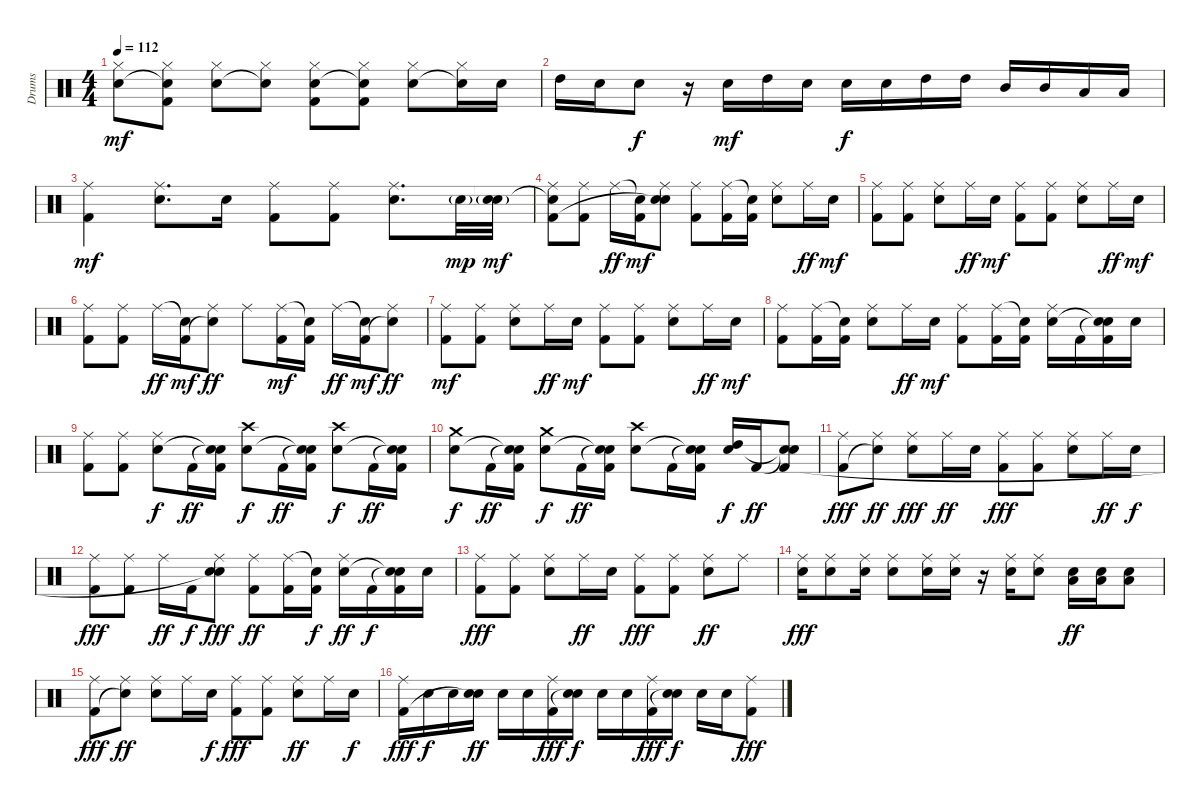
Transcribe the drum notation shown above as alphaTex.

\track ("Drums" "Drums") {instrument percussion}
\staff {score}
\articulation defaults
\ts (4 4)
\tempo 112
\clef neutral
\ks c
("Hi-Hat (closed)" "Electric Snare (hit)").8{dy mf} ("Hi-Hat (closed)" "Snare (hit)"{t} "Kick (hit) 2").8 ("Hi-Hat (closed)" "Electric Snare (hit)").8 ("Hi-Hat (closed)" "Snare (hit)"{t}).8 ("Hi-Hat (closed)" "Electric Snare (hit)" "Kick (hit) 2").8 ("Hi-Hat (closed)" "Snare (hit)"{t} "Kick (hit) 2").8 ("Hi-Hat (closed)" "Electric Snare (hit)").8 ("Hi-Hat (closed)" "Snare (hit)"{t}).16 "Electric Snare (hit)".16 |
"High Tom (hit)".16 "Electric Snare (hit)".16 "Electric Snare (hit)".8{dy f} r.16 "Electric Snare (hit)".16{dy mf} "High Tom (hit)".16 "Electric Snare (hit)".16 "Electric Snare (hit)".16{dy f} "Electric Snare (hit)".16 "High Tom (hit)".16 "High Tom (hit)".16 "Mid Tom (hit)".16 "Mid Tom (hit)".16 "Low Tom (hit)".16 "Low Tom (hit)".16 |
("Ride (middle)" "Kick (hit) 2").4{dy mf} ("Ride (middle)" "Electric Snare (hit)").8{d} "Electric Snare (hit)".16 ("Ride (middle)" "Kick (hit) 2").8 ("Ride (middle)" "Kick (hit) 2").8 ("Ride (middle)" "Electric Snare (hit)").8{d} "Electric Snare (hit)"{g}.32{dy mp} ("Snare (hit)"{t} "Electric Snare (hit)"{g}).32{dy mf} |
("Ride (middle)" "Snare (hit)"{t} "Kick (hit) 2").8 ("Ride (middle)" "Kick (hit) 2").8 "Ride (middle)".16{dy ff} ("Snare (hit)"{t} "Kick (hit) 2").16{dy mf} ("Ride (middle)" "Electric Snare (hit)" "Snare (hit)"{t}).8 ("Ride (middle)" "Kick (hit) 2").8 ("Ride (middle)" "Kick (hit) 2").16 ("Snare (hit)"{t} "Kick (hit) 2").16 ("Ride (middle)" "Electric Snare (hit)").8 "Ride (middle)".16{dy ff} "Electric Snare (hit)".16{dy mf} |
("Ride (middle)" "Kick (hit) 2").8 ("Ride (middle)" "Kick (hit) 2").8 ("Ride (middle)" "Electric Snare (hit)").8 "Ride (middle)".16{dy ff} "Electric Snare (hit)".16{dy mf} ("Ride (middle)" "Kick (hit) 2").8 ("Ride (middle)" "Kick (hit) 2").8 ("Ride (middle)" "Electric Snare (hit)").8 "Ride (middle)".16{dy ff} "Electric Snare (hit)".16{dy mf} |
("Ride (middle)" "Kick (hit) 2").8 ("Ride (middle)" "Kick (hit) 2").8 "Ride (middle)".16{dy ff} ("Snare (hit)"{t} "Kick (hit) 2").16{dy mf} ("Ride (middle)" "Snare (hit)"{t}).8{dy ff} "Ride (middle)".8 ("Ride (middle)" "Kick (hit) 2").16{dy mf} ("Snare (hit)"{t} "Kick (hit) 2").16 "Ride (middle)".16{dy ff} ("Snare (hit)"{t} "Kick (hit) 2").16{dy mf} ("Ride (middle)" "Snare (hit)"{t}).8{dy ff} |
("Ride (middle)" "Kick (hit) 2").8{dy mf} ("Ride (middle)" "Kick (hit) 2").8 ("Ride (middle)" "Electric Snare (hit)").8 "Ride (middle)".16{dy ff} "Electric Snare (hit)".16{dy mf} ("Ride (middle)" "Kick (hit) 2").8 ("Ride (middle)" "Kick (hit) 2").8 ("Ride (middle)" "Electric Snare (hit)").8 "Ride (middle)".16{dy ff} "Electric Snare (hit)".16{dy mf} |
("Ride (middle)" "Kick (hit) 2").8 ("Ride (middle)" "Kick (hit) 2").16 ("Snare (hit)"{t} "Kick (hit) 2").16 ("Ride (middle)" "Electric Snare (hit)").8 "Ride (middle)".16{dy ff} "Electric Snare (hit)".16{dy mf} ("Ride (middle)" "Kick (hit) 2").8 ("Ride (middle)" "Kick (hit) 2").16 ("Snare (hit)"{t} "Kick (hit) 2").16 ("Ride (middle)" "Electric Snare (hit)").16 "Kick (hit) 2".16 ("Snare (hit)"{t} "Snare (hit)"{t} "Kick (hit) 2").16 "Electric Snare (hit)".16 |
("Ride (middle)" "Kick (hit) 2").8 ("Ride (middle)" "Kick (hit) 2").8 ("Ride (middle)" "Electric Snare (hit)").8{dy f} "Kick (hit) 2".16{dy ff} ("Snare (hit)"{t} "Snare (hit)"{t} "Kick (hit) 2").16 ("Crash high (hit)" "Electric Snare (hit)").8{dy f} "Kick (hit) 2".16{dy ff} ("Snare (hit)"{t} "Snare (hit)"{t} "Kick (hit) 2").16 ("Crash high (hit)" "Electric Snare (hit)").8{dy f} "Kick (hit) 2".16{dy ff} ("Snare (hit)"{t} "Snare (hit)"{t} "Kick (hit) 2").16 |
("Crash medium (hit)" "Electric Snare (hit)").8{dy f} "Kick (hit) 2".16{dy ff} ("Snare (hit)"{t} "Snare (hit)"{t} "Kick (hit) 2").16 ("Crash medium (hit)" "Electric Snare (hit)").8{dy f} "Kick (hit) 2".16{dy ff} ("Snare (hit)"{t} "Snare (hit)"{t} "Kick (hit) 2").16 ("Crash high (hit)" "Electric Snare (hit)").8 "Kick (hit) 2".16 ("Snare (hit)"{t} "Snare (hit)"{t} "Kick (hit) 2").16 ("High Tom (hit)" "Electric Snare (hit)").16{dy f} "Kick (hit) 2".16{dy ff} ("Snare (hit)"{t} "Snare (hit)"{t} "Kick (hit) 2").8 |
("Ride (middle)" "Kick (hit) 2").8{dy fff} ("Ride (middle)" "Snare (hit)"{t}).8{dy ff} ("Ride (middle)" "Electric Snare (hit)").8{dy fff} "Ride (middle)".16{dy ff} "Electric Snare (hit)".16 ("Ride (middle)" "Kick (hit) 2").8{dy fff} ("Ride (middle)" "Kick (hit) 2").8 ("Ride (middle)" "Electric Snare (hit)").8 "Ride (middle)".16{dy ff} "Electric Snare (hit)".16{dy f} |
("Ride (middle)" "Kick (hit) 2").8{dy fff} ("Ride (middle)" "Kick (hit) 2").8 "Ride (middle)".16{dy ff} "Kick (hit) 2".16{dy f} ("Ride (middle)" "Electric Snare (hit)" "Snare (hit)"{t}).8{dy fff} ("Ride (middle)" "Kick (hit) 2").8{dy ff} ("Ride (middle)" "Kick (hit) 2").16 ("Snare (hit)"{t} "Kick (hit) 2").16{dy f} ("Ride (middle)" "Electric Snare (hit)").16{dy ff} "Kick (hit) 2".16{dy f} ("Snare (hit)"{t} "Snare (hit)"{t} "Kick (hit) 2").16 "Electric Snare (hit)".16 |
("Ride (middle)" "Kick (hit) 2").8{dy fff} ("Ride (middle)" "Kick (hit) 2").8 ("Ride (middle)" "Electric Snare (hit)").8 "Ride (middle)".16{dy ff} "Electric Snare (hit)".16 ("Ride (middle)" "Kick (hit) 2").8{dy fff} ("Ride (middle)" "Kick (hit) 2").8 ("Ride (middle)" "Electric Snare (hit)").8{dy ff} "Ride (middle)".8 |
("Ride (middle)" "Electric Snare (hit)").16{dy fff} ("Ride (middle)" "Electric Snare (hit)").8 ("Ride (middle)" "Electric Snare (hit)").16 ("Ride (middle)" "Electric Snare (hit)").8 ("Ride (middle)" "Electric Snare (hit)").16 ("Ride (middle)" "Electric Snare (hit)").16 r.16 ("Ride (middle)" "Electric Snare (hit)").16 ("Ride (middle)" "Electric Snare (hit)").8 ("Electric Snare (hit)" "Low Tom (hit)").16{dy ff} ("Electric Snare (hit)" "Low Tom (hit)").16 ("Electric Snare (hit)" "Low Tom (hit)").8 |
("Ride (middle)" "Kick (hit) 2").8{dy fff} ("Ride (middle)" "Snare (hit)"{t}).8{dy ff} ("Ride (middle)" "Electric Snare (hit)").8 "Ride (middle)".16 "Electric Snare (hit)".16{dy f} ("Ride (middle)" "Kick (hit) 2").8{dy fff} ("Ride (middle)" "Kick (hit) 2").8 ("Ride (middle)" "Electric Snare (hit)").8{dy ff} "Ride (middle)".16 "Electric Snare (hit)".16{dy f} |
("Ride (middle)" "Kick (hit) 2").16{dy fff} "Electric Snare (hit)".16{dy f} "Electric Snare (hit)".16 ("Electric Snare (hit)" "Snare (hit)"{t}).16{dy ff} "Electric Snare (hit)".16 "Electric Snare (hit)".16 ("Ride (middle)" "Kick (hit) 2").16{dy fff} ("Electric Snare (hit)" "Snare (hit)"{t}).16{dy f} "Electric Snare (hit)".16 "Electric Snare (hit)".16 ("Ride (middle)" "Kick (hit) 2").16{dy fff} ("Electric Snare (hit)" "Snare (hit)"{t}).16{dy f} "Electric Snare (hit)".16 "Electric Snare (hit)".16 ("Ride (middle)" "Kick (hit) 2").8{dy fff}
